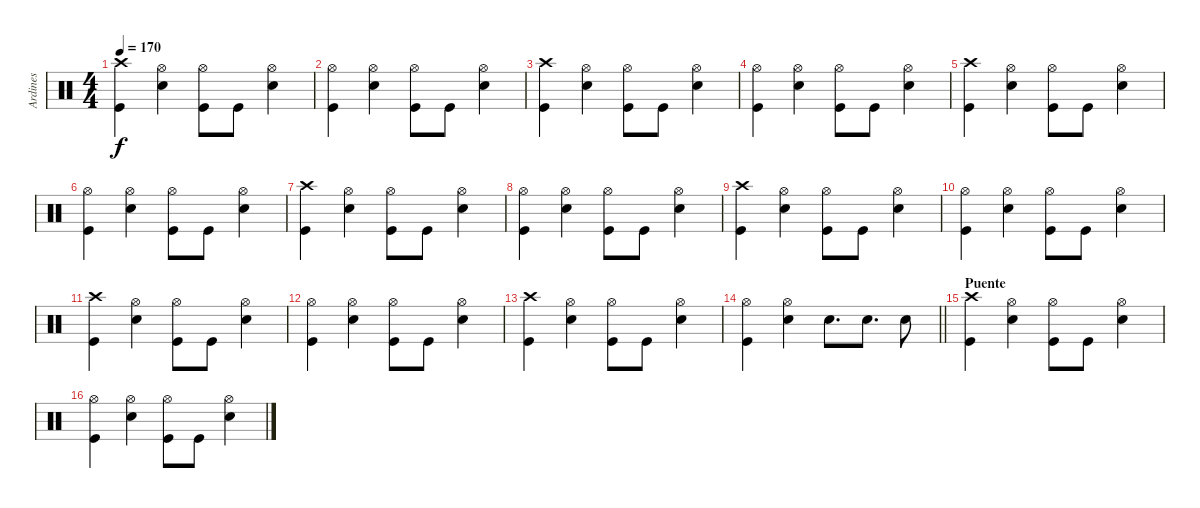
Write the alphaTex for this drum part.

\track ("Ardines" "Ardines") {instrument percussion}
\staff {score}
\articulation defaults
\ts (4 4)
\tempo 170
\clef neutral
\ks c
("Kick (hit)" "Crash high (hit)").4{dy f} ("Snare (hit) 2" "Hi-Hat (open)").4 ("Kick (hit)" "Hi-Hat (open)").8 "Kick (hit)".8 ("Snare (hit) 2" "Hi-Hat (open)").4 |
("Kick (hit)" "Hi-Hat (open)").4 ("Snare (hit) 2" "Hi-Hat (open)").4 ("Kick (hit)" "Hi-Hat (open)").8 "Kick (hit)".8 ("Snare (hit) 2" "Hi-Hat (open)").4 |
("Kick (hit)" "Crash high (hit)").4 ("Snare (hit) 2" "Hi-Hat (open)").4 ("Kick (hit)" "Hi-Hat (open)").8 "Kick (hit)".8 ("Snare (hit) 2" "Hi-Hat (open)").4 |
("Kick (hit)" "Hi-Hat (open)").4 ("Snare (hit) 2" "Hi-Hat (open)").4 ("Kick (hit)" "Hi-Hat (open)").8 "Kick (hit)".8 ("Snare (hit) 2" "Hi-Hat (open)").4 |
("Kick (hit)" "Crash high (hit)").4 ("Snare (hit) 2" "Hi-Hat (open)").4 ("Kick (hit)" "Hi-Hat (open)").8 "Kick (hit)".8 ("Snare (hit) 2" "Hi-Hat (open)").4 |
("Kick (hit)" "Hi-Hat (open)").4 ("Snare (hit) 2" "Hi-Hat (open)").4 ("Kick (hit)" "Hi-Hat (open)").8 "Kick (hit)".8 ("Snare (hit) 2" "Hi-Hat (open)").4 |
("Kick (hit)" "Crash high (hit)").4 ("Snare (hit) 2" "Hi-Hat (open)").4 ("Kick (hit)" "Hi-Hat (open)").8 "Kick (hit)".8 ("Snare (hit) 2" "Hi-Hat (open)").4 |
("Kick (hit)" "Hi-Hat (open)").4 ("Snare (hit) 2" "Hi-Hat (open)").4 ("Kick (hit)" "Hi-Hat (open)").8 "Kick (hit)".8 ("Snare (hit) 2" "Hi-Hat (open)").4 |
("Kick (hit)" "Crash high (hit)").4 ("Snare (hit) 2" "Hi-Hat (open)").4 ("Kick (hit)" "Hi-Hat (open)").8 "Kick (hit)".8 ("Snare (hit) 2" "Hi-Hat (open)").4 |
("Kick (hit)" "Hi-Hat (open)").4 ("Snare (hit) 2" "Hi-Hat (open)").4 ("Kick (hit)" "Hi-Hat (open)").8 "Kick (hit)".8 ("Snare (hit) 2" "Hi-Hat (open)").4 |
("Kick (hit)" "Crash high (hit)").4 ("Snare (hit) 2" "Hi-Hat (open)").4 ("Kick (hit)" "Hi-Hat (open)").8 "Kick (hit)".8 ("Snare (hit) 2" "Hi-Hat (open)").4 |
("Kick (hit)" "Hi-Hat (open)").4 ("Snare (hit) 2" "Hi-Hat (open)").4 ("Kick (hit)" "Hi-Hat (open)").8 "Kick (hit)".8 ("Snare (hit) 2" "Hi-Hat (open)").4 |
("Kick (hit)" "Crash high (hit)").4 ("Snare (hit) 2" "Hi-Hat (open)").4 ("Kick (hit)" "Hi-Hat (open)").8 "Kick (hit)".8 ("Snare (hit) 2" "Hi-Hat (open)").4 |
\barLineRight lightlight
("Kick (hit)" "Hi-Hat (open)").4 ("Snare (hit) 2" "Hi-Hat (open)").4 "Snare (hit) 2".8{d} "Snare (hit) 2".8{d} "Snare (hit) 2".8 |
\section ("" "Puente")
("Kick (hit)" "Crash high (hit)").4 ("Snare (hit) 2" "Hi-Hat (open)").4 ("Kick (hit)" "Hi-Hat (open)").8 "Kick (hit)".8 ("Snare (hit) 2" "Hi-Hat (open)").4 |
("Kick (hit)" "Hi-Hat (open)").4 ("Snare (hit) 2" "Hi-Hat (open)").4 ("Kick (hit)" "Hi-Hat (open)").8 "Kick (hit)".8 ("Snare (hit) 2" "Hi-Hat (open)").4
